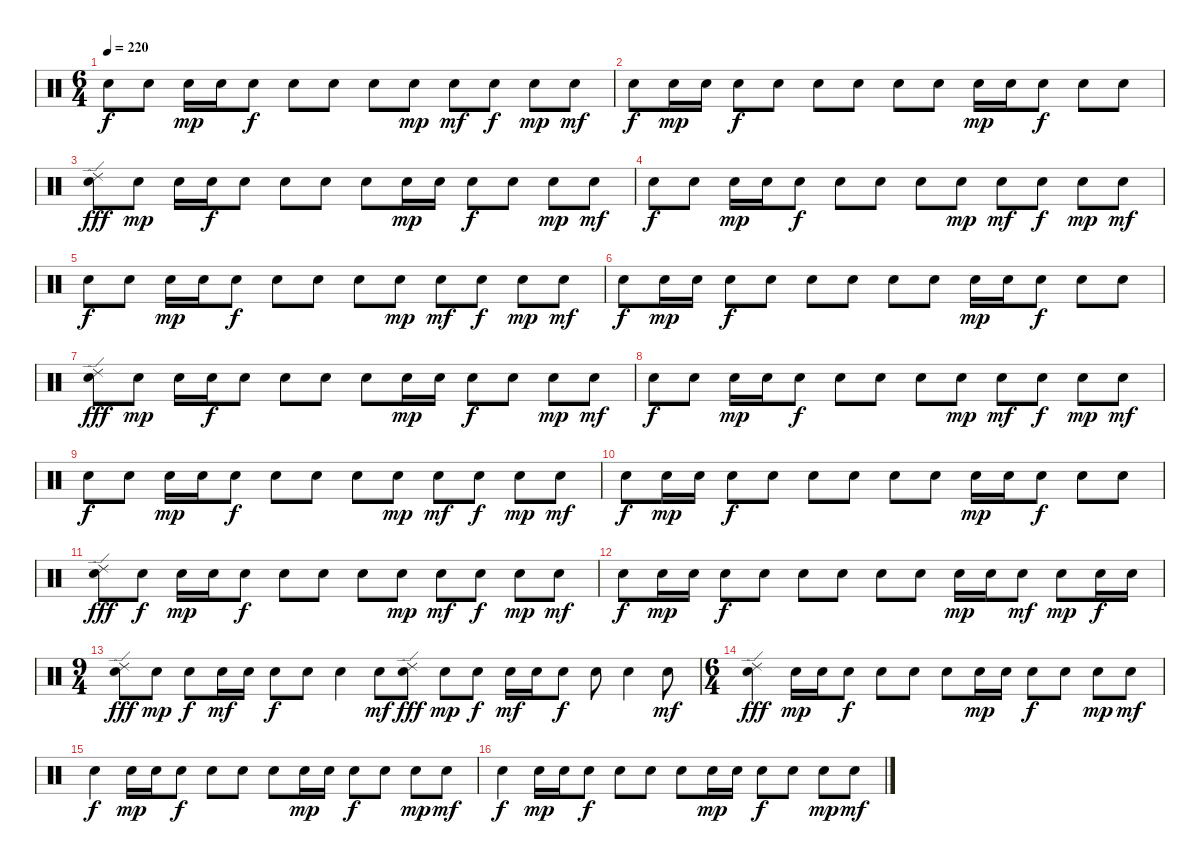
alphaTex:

\track "" {instrument percussion}
\staff {score}
\articulation defaults
\ts (6 4)
\tempo 220
\clef neutral
\ks c "Snare (hit) 2".8{dy f} "Snare (hit) 2".8 "Snare (hit) 2".16{dy mp} "Snare (hit) 2".16 "Snare (hit) 2".8{dy f} "Snare (hit) 2".8 "Snare (hit) 2".8 "Snare (hit) 2".8 "Snare (hit) 2".8{dy mp} "Snare (hit) 2".8{dy mf} "Snare (hit) 2".8{dy f} "Snare (hit) 2".8{dy mp} "Snare (hit) 2".8{dy mf}
|
"Snare (hit) 2".8{dy f} "Snare (hit) 2".16{dy mp} "Snare (hit) 2".16 "Snare (hit) 2".8{dy f} "Snare (hit) 2".8 "Snare (hit) 2".8 "Snare (hit) 2".8 "Snare (hit) 2".8 "Snare (hit) 2".8 "Snare (hit) 2".16{dy mp} "Snare (hit) 2".16 "Snare (hit) 2".8{dy f} "Snare (hit) 2".8 "Snare (hit) 2".8 |
("Snare (hit) 2" "Ride (edge) 2").8{dy fff} "Snare (hit) 2".8{dy mp} "Snare (hit) 2".16 "Snare (hit) 2".16{dy f} "Snare (hit) 2".8 "Snare (hit) 2".8 "Snare (hit) 2".8 "Snare (hit) 2".8 "Snare (hit) 2".16{dy mp} "Snare (hit) 2".16 "Snare (hit) 2".8{dy f} "Snare (hit) 2".8 "Snare (hit) 2".8{dy mp} "Snare (hit) 2".8{dy mf} |
"Snare (hit) 2".8{dy f} "Snare (hit) 2".8 "Snare (hit) 2".16{dy mp} "Snare (hit) 2".16 "Snare (hit) 2".8{dy f} "Snare (hit) 2".8 "Snare (hit) 2".8 "Snare (hit) 2".8 "Snare (hit) 2".8{dy mp} "Snare (hit) 2".8{dy mf} "Snare (hit) 2".8{dy f} "Snare (hit) 2".8{dy mp} "Snare (hit) 2".8{dy mf} |
"Snare (hit) 2".8{dy f} "Snare (hit) 2".8 "Snare (hit) 2".16{dy mp} "Snare (hit) 2".16 "Snare (hit) 2".8{dy f} "Snare (hit) 2".8 "Snare (hit) 2".8 "Snare (hit) 2".8 "Snare (hit) 2".8{dy mp} "Snare (hit) 2".8{dy mf} "Snare (hit) 2".8{dy f} "Snare (hit) 2".8{dy mp} "Snare (hit) 2".8{dy mf} |
"Snare (hit) 2".8{dy f} "Snare (hit) 2".16{dy mp} "Snare (hit) 2".16 "Snare (hit) 2".8{dy f} "Snare (hit) 2".8 "Snare (hit) 2".8 "Snare (hit) 2".8 "Snare (hit) 2".8 "Snare (hit) 2".8 "Snare (hit) 2".16{dy mp} "Snare (hit) 2".16 "Snare (hit) 2".8{dy f} "Snare (hit) 2".8 "Snare (hit) 2".8 |
("Snare (hit) 2" "Ride (edge) 2").8{dy fff} "Snare (hit) 2".8{dy mp} "Snare (hit) 2".16 "Snare (hit) 2".16{dy f} "Snare (hit) 2".8 "Snare (hit) 2".8 "Snare (hit) 2".8 "Snare (hit) 2".8 "Snare (hit) 2".16{dy mp} "Snare (hit) 2".16 "Snare (hit) 2".8{dy f} "Snare (hit) 2".8 "Snare (hit) 2".8{dy mp} "Snare (hit) 2".8{dy mf} |
"Snare (hit) 2".8{dy f} "Snare (hit) 2".8 "Snare (hit) 2".16{dy mp} "Snare (hit) 2".16 "Snare (hit) 2".8{dy f} "Snare (hit) 2".8 "Snare (hit) 2".8 "Snare (hit) 2".8 "Snare (hit) 2".8{dy mp} "Snare (hit) 2".8{dy mf} "Snare (hit) 2".8{dy f} "Snare (hit) 2".8{dy mp} "Snare (hit) 2".8{dy mf} |
"Snare (hit) 2".8{dy f} "Snare (hit) 2".8 "Snare (hit) 2".16{dy mp} "Snare (hit) 2".16 "Snare (hit) 2".8{dy f} "Snare (hit) 2".8 "Snare (hit) 2".8 "Snare (hit) 2".8 "Snare (hit) 2".8{dy mp} "Snare (hit) 2".8{dy mf} "Snare (hit) 2".8{dy f} "Snare (hit) 2".8{dy mp} "Snare (hit) 2".8{dy mf} |
"Snare (hit) 2".8{dy f} "Snare (hit) 2".16{dy mp} "Snare (hit) 2".16 "Snare (hit) 2".8{dy f} "Snare (hit) 2".8 "Snare (hit) 2".8 "Snare (hit) 2".8 "Snare (hit) 2".8 "Snare (hit) 2".8 "Snare (hit) 2".16{dy mp} "Snare (hit) 2".16 "Snare (hit) 2".8{dy f} "Snare (hit) 2".8 "Snare (hit) 2".8 |
("Snare (hit) 2" "Ride (edge) 2").8{dy fff} "Snare (hit) 2".8{dy f} "Snare (hit) 2".16{dy mp} "Snare (hit) 2".16 "Snare (hit) 2".8{dy f} "Snare (hit) 2".8 "Snare (hit) 2".8 "Snare (hit) 2".8 "Snare (hit) 2".8{dy mp} "Snare (hit) 2".8{dy mf} "Snare (hit) 2".8{dy f} "Snare (hit) 2".8{dy mp} "Snare (hit) 2".8{dy mf} |
"Snare (hit) 2".8{dy f} "Snare (hit) 2".16{dy mp} "Snare (hit) 2".16 "Snare (hit) 2".8{dy f} "Snare (hit) 2".8 "Snare (hit) 2".8 "Snare (hit) 2".8 "Snare (hit) 2".8 "Snare (hit) 2".8 "Snare (hit) 2".16{dy mp} "Snare (hit) 2".16 "Snare (hit) 2".8{dy mf} "Snare (hit) 2".8{dy mp} "Snare (hit) 2".16{dy f} "Snare (hit) 2".16 |
\ts (9 4)
("Ride (edge) 2" "Snare (hit) 2").8{dy fff} "Snare (hit) 2".8{dy mp} "Snare (hit) 2".8{dy f} "Snare (hit) 2".16{dy mf} "Snare (hit) 2".16 "Snare (hit) 2".8{dy f} "Snare (hit) 2".8 "Snare (hit) 2".4 "Snare (hit) 2".8{dy mf} ("Ride (edge) 2" "Snare (hit) 2").8{dy fff} "Snare (hit) 2".8{dy mp} "Snare (hit) 2".8{dy f} "Snare (hit) 2".16{dy mf} "Snare (hit) 2".16 "Snare (hit) 2".8{dy f} "Snare (hit) 2".8 "Snare (hit) 2".4 "Snare (hit) 2".8{dy mf} |
\ts (6 4)
("Snare (hit) 2" "Ride (edge) 2").4{dy fff} "Snare (hit) 2".16{dy mp} "Snare (hit) 2".16 "Snare (hit) 2".8{dy f} "Snare (hit) 2".8 "Snare (hit) 2".8 "Snare (hit) 2".8 "Snare (hit) 2".16{dy mp} "Snare (hit) 2".16 "Snare (hit) 2".8{dy f} "Snare (hit) 2".8 "Snare (hit) 2".8{dy mp} "Snare (hit) 2".8{dy mf} |
"Snare (hit) 2".4{dy f} "Snare (hit) 2".16{dy mp} "Snare (hit) 2".16 "Snare (hit) 2".8{dy f} "Snare (hit) 2".8 "Snare (hit) 2".8 "Snare (hit) 2".8 "Snare (hit) 2".16{dy mp} "Snare (hit) 2".16 "Snare (hit) 2".8{dy f} "Snare (hit) 2".8 "Snare (hit) 2".8{dy mp} "Snare (hit) 2".8{dy mf} |
"Snare (hit) 2".4{dy f} "Snare (hit) 2".16{dy mp} "Snare (hit) 2".16 "Snare (hit) 2".8{dy f} "Snare (hit) 2".8 "Snare (hit) 2".8 "Snare (hit) 2".8 "Snare (hit) 2".16{dy mp} "Snare (hit) 2".16 "Snare (hit) 2".8{dy f} "Snare (hit) 2".8 "Snare (hit) 2".8{dy mp} "Snare (hit) 2".8{dy mf}
